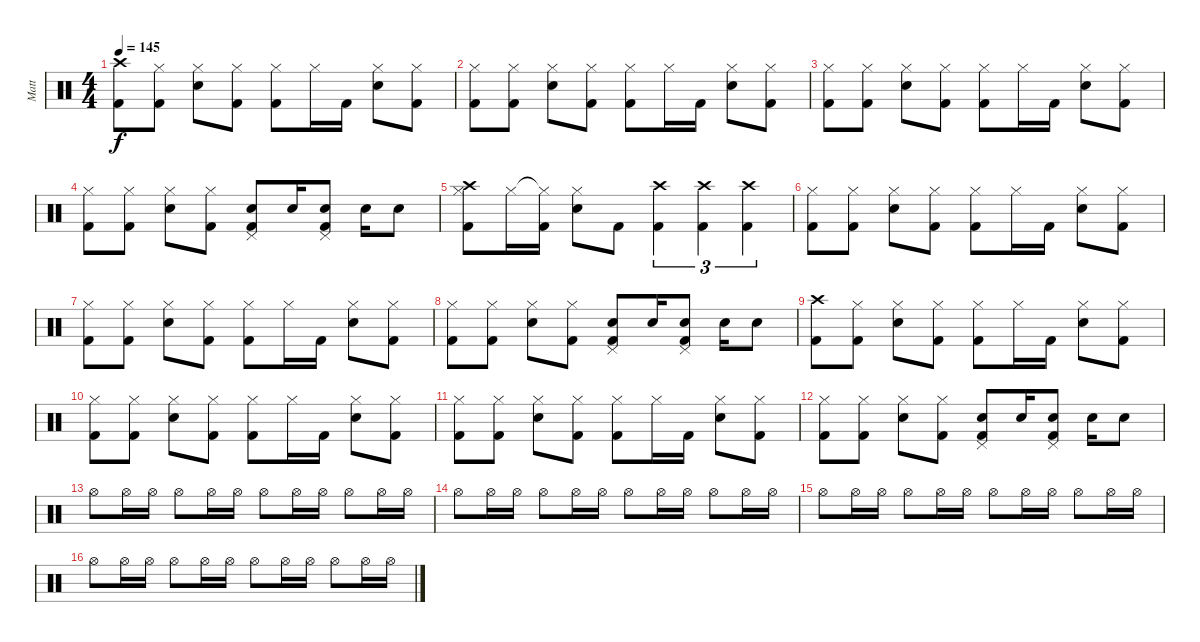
\track ("Matt" "Matt") {instrument percussion}
\staff {score}
\articulation defaults
\ts (4 4)
\tempo 145
\clef neutral
\ks c
("Crash high (hit)" "Kick (hit) 2").8{dy f} ("Hi-Hat (closed)" "Kick (hit) 2").8 ("Hi-Hat (closed)" "Snare (hit) 2").8 ("Hi-Hat (closed)" "Kick (hit) 2").8 ("Hi-Hat (closed)" "Kick (hit) 2").8 "Hi-Hat (closed)".16 "Kick (hit) 2".16 ("Hi-Hat (closed)" "Snare (hit) 2").8 ("Hi-Hat (closed)" "Kick (hit) 2").8 |
("Hi-Hat (closed)" "Kick (hit) 2").8 ("Hi-Hat (closed)" "Kick (hit) 2").8 ("Hi-Hat (closed)" "Snare (hit) 2").8 ("Hi-Hat (closed)" "Kick (hit) 2").8 ("Hi-Hat (closed)" "Kick (hit) 2").8 "Hi-Hat (closed)".16 "Kick (hit) 2".16 ("Hi-Hat (closed)" "Snare (hit) 2").8 ("Hi-Hat (closed)" "Kick (hit) 2").8 |
("Hi-Hat (closed)" "Kick (hit) 2").8 ("Hi-Hat (closed)" "Kick (hit) 2").8 ("Hi-Hat (closed)" "Snare (hit) 2").8 ("Hi-Hat (closed)" "Kick (hit) 2").8 ("Hi-Hat (closed)" "Kick (hit) 2").8 "Hi-Hat (closed)".16 "Kick (hit) 2".16 ("Hi-Hat (closed)" "Snare (hit) 2").8 ("Hi-Hat (closed)" "Kick (hit) 2").8 |
("Hi-Hat (closed)" "Kick (hit) 2").8 ("Hi-Hat (closed)" "Kick (hit) 2").8 ("Hi-Hat (closed)" "Snare (hit) 2").8 ("Hi-Hat (closed)" "Kick (hit) 2").8 ("Pedal Hi-Hat (hit)" "Snare (hit) 2" "Kick (hit) 2").8 "Snare (hit) 2".16 ("Pedal Hi-Hat (hit)" "Snare (hit) 2" "Kick (hit) 2").8 "Snare (hit) 2".16 "Snare (hit) 2".8 |
("Crash high (hit)" "Hi-Hat (closed)" "Kick (hit) 2").8 "Hi-Hat (closed)".16 ("Hi-Hat (closed)"{t} "Kick (hit) 2").16 ("Hi-Hat (closed)" "Snare (hit) 2").8 "Kick (hit) 2".8 ("Crash high (hit)" "Kick (hit) 2").4{tu (3 2)} ("Crash high (hit)" "Kick (hit) 2").4{tu (3 2)} ("Crash high (hit)" "Kick (hit) 2").4{tu (3 2)} |
("Hi-Hat (closed)" "Kick (hit) 2").8 ("Hi-Hat (closed)" "Kick (hit) 2").8 ("Hi-Hat (closed)" "Snare (hit) 2").8 ("Hi-Hat (closed)" "Kick (hit) 2").8 ("Hi-Hat (closed)" "Kick (hit) 2").8 "Hi-Hat (closed)".16 "Kick (hit) 2".16 ("Hi-Hat (closed)" "Snare (hit) 2").8 ("Hi-Hat (closed)" "Kick (hit) 2").8 |
("Hi-Hat (closed)" "Kick (hit) 2").8 ("Hi-Hat (closed)" "Kick (hit) 2").8 ("Hi-Hat (closed)" "Snare (hit) 2").8 ("Hi-Hat (closed)" "Kick (hit) 2").8 ("Hi-Hat (closed)" "Kick (hit) 2").8 "Hi-Hat (closed)".16 "Kick (hit) 2".16 ("Hi-Hat (closed)" "Snare (hit) 2").8 ("Hi-Hat (closed)" "Kick (hit) 2").8 |
("Hi-Hat (closed)" "Kick (hit) 2").8 ("Hi-Hat (closed)" "Kick (hit) 2").8 ("Hi-Hat (closed)" "Snare (hit) 2").8 ("Hi-Hat (closed)" "Kick (hit) 2").8 ("Pedal Hi-Hat (hit)" "Snare (hit) 2" "Kick (hit) 2").8 "Snare (hit) 2".16 ("Pedal Hi-Hat (hit)" "Snare (hit) 2" "Kick (hit) 2").8 "Snare (hit) 2".16 "Snare (hit) 2".8 |
("Crash high (hit)" "Kick (hit) 2").8 ("Hi-Hat (closed)" "Kick (hit) 2").8 ("Hi-Hat (closed)" "Snare (hit) 2").8 ("Hi-Hat (closed)" "Kick (hit) 2").8 ("Hi-Hat (closed)" "Kick (hit) 2").8 "Hi-Hat (closed)".16 "Kick (hit) 2".16 ("Hi-Hat (closed)" "Snare (hit) 2").8 ("Hi-Hat (closed)" "Kick (hit) 2").8 |
("Hi-Hat (closed)" "Kick (hit) 2").8 ("Hi-Hat (closed)" "Kick (hit) 2").8 ("Hi-Hat (closed)" "Snare (hit) 2").8 ("Hi-Hat (closed)" "Kick (hit) 2").8 ("Hi-Hat (closed)" "Kick (hit) 2").8 "Hi-Hat (closed)".16 "Kick (hit) 2".16 ("Hi-Hat (closed)" "Snare (hit) 2").8 ("Hi-Hat (closed)" "Kick (hit) 2").8 |
("Hi-Hat (closed)" "Kick (hit) 2").8 ("Hi-Hat (closed)" "Kick (hit) 2").8 ("Hi-Hat (closed)" "Snare (hit) 2").8 ("Hi-Hat (closed)" "Kick (hit) 2").8 ("Hi-Hat (closed)" "Kick (hit) 2").8 "Hi-Hat (closed)".16 "Kick (hit) 2".16 ("Hi-Hat (closed)" "Snare (hit) 2").8 ("Hi-Hat (closed)" "Kick (hit) 2").8 |
("Hi-Hat (closed)" "Kick (hit) 2").8 ("Hi-Hat (closed)" "Kick (hit) 2").8 ("Hi-Hat (closed)" "Snare (hit) 2").8 ("Hi-Hat (closed)" "Kick (hit) 2").8 ("Pedal Hi-Hat (hit)" "Snare (hit) 2" "Kick (hit) 2").8 "Snare (hit) 2".16 ("Pedal Hi-Hat (hit)" "Snare (hit) 2" "Kick (hit) 2").8 "Snare (hit) 2".16 "Snare (hit) 2".8 |
"Hi-Hat (open)".8 "Hi-Hat (open)".16 "Hi-Hat (open)".16 "Hi-Hat (open)".8 "Hi-Hat (open)".16 "Hi-Hat (open)".16 "Hi-Hat (open)".8 "Hi-Hat (open)".16 "Hi-Hat (open)".16 "Hi-Hat (open)".8 "Hi-Hat (open)".16 "Hi-Hat (open)".16 |
"Hi-Hat (open)".8 "Hi-Hat (open)".16 "Hi-Hat (open)".16 "Hi-Hat (open)".8 "Hi-Hat (open)".16 "Hi-Hat (open)".16 "Hi-Hat (open)".8 "Hi-Hat (open)".16 "Hi-Hat (open)".16 "Hi-Hat (open)".8 "Hi-Hat (open)".16 "Hi-Hat (open)".16 |
"Hi-Hat (open)".8 "Hi-Hat (open)".16 "Hi-Hat (open)".16 "Hi-Hat (open)".8 "Hi-Hat (open)".16 "Hi-Hat (open)".16 "Hi-Hat (open)".8 "Hi-Hat (open)".16 "Hi-Hat (open)".16 "Hi-Hat (open)".8 "Hi-Hat (open)".16 "Hi-Hat (open)".16 |
"Hi-Hat (open)".8 "Hi-Hat (open)".16 "Hi-Hat (open)".16 "Hi-Hat (open)".8 "Hi-Hat (open)".16 "Hi-Hat (open)".16 "Hi-Hat (open)".8 "Hi-Hat (open)".16 "Hi-Hat (open)".16 "Hi-Hat (open)".8 "Hi-Hat (open)".16 "Hi-Hat (open)".16
